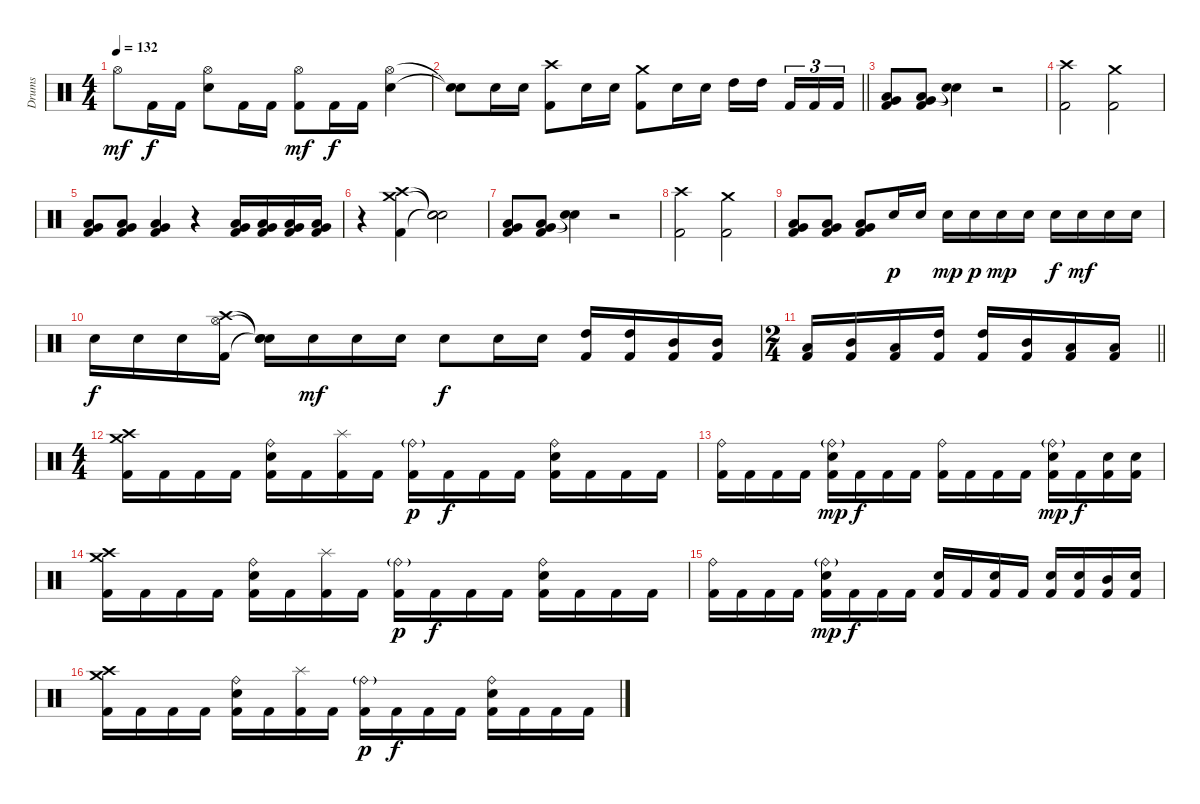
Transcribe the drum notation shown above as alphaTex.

\track ("Drums" "Drums") {instrument percussion}
\staff {score}
\articulation defaults
\ts (4 4)
\tempo 132
\clef neutral
\ks c "Hi-Hat (open)".8{dy mf} "Kick (hit) 2".16{dy f} "Kick (hit) 2".16
("Hi-Hat (open)" "Electric Snare (hit)").8 "Kick (hit) 2".16 "Kick (hit) 2".16 ("Hi-Hat (open)" "Kick (hit) 2").8{dy mf} "Kick (hit) 2".16{dy f} "Kick (hit) 2".16 ("Hi-Hat (open)" "Electric Snare (hit)").4 |
\barLineRight lightlight
("Snare (hit)"{t} "Snare (hit)"{t}).8 "Electric Snare (hit)".16 "Electric Snare (hit)".16 ("Crash high (hit)" "Kick (hit) 2").8 "Electric Snare (hit)".16 "Electric Snare (hit)".16 ("Crash medium (hit)" "Kick (hit) 2").8 "Electric Snare (hit)".16 "Electric Snare (hit)".16 "High Tom (hit)".16 "High Tom (hit)".16{beam splitsecondary} "Kick (hit) 2".16{tu (3 2)} "Kick (hit) 2".16{tu (3 2)} "Kick (hit) 2".16{tu (3 2)} |
("Low Tom (hit)" "Very Low Tom (hit)" "Kick (hit) 2").8 ("Low Tom (hit)" "Very Low Tom (hit)" "Kick (hit) 2").8 ("Snare (hit)"{t} "Snare (hit)"{t}).4 r.2 |
("Crash high (hit)" "Kick (hit) 2").2 ("Crash medium (hit)" "Kick (hit) 2").2 |
("Low Tom (hit)" "Very Low Tom (hit)" "Kick (hit) 2").8 ("Low Tom (hit)" "Very Low Tom (hit)" "Kick (hit) 2").8 ("Low Tom (hit)" "Very Low Tom (hit)" "Kick (hit) 2").4 r.4 ("Low Tom (hit)" "Very Low Tom (hit)" "Kick (hit) 2").16 ("Low Tom (hit)" "Very Low Tom (hit)" "Kick (hit) 2").16 ("Low Tom (hit)" "Very Low Tom (hit)" "Kick (hit) 2").16 ("Low Tom (hit)" "Very Low Tom (hit)" "Kick (hit) 2").16 |
r.4 ("Crash high (hit)" "Crash medium (hit)" "Kick (hit) 2").4 ("Snare (hit)"{t} "Snare (hit)"{t} "Snare (hit)"{t}).2 |
("Low Tom (hit)" "Very Low Tom (hit)" "Kick (hit) 2").8 ("Low Tom (hit)" "Very Low Tom (hit)" "Kick (hit) 2").8 ("Snare (hit)"{t} "Snare (hit)"{t}).4 r.2 |
("Crash high (hit)" "Kick (hit) 2").2 ("Crash medium (hit)" "Kick (hit) 2").2 |
("Low Tom (hit)" "Very Low Tom (hit)" "Kick (hit) 2").8 ("Low Tom (hit)" "Very Low Tom (hit)" "Kick (hit) 2").8 ("Low Tom (hit)" "Very Low Tom (hit)" "Kick (hit) 2").8 "Electric Snare (hit)".16{dy p} "Electric Snare (hit)".16 "Electric Snare (hit)".16{dy mp} "Electric Snare (hit)".16{dy p} "Electric Snare (hit)".16{dy mp} "Electric Snare (hit)".16 "Electric Snare (hit)".16{dy f} "Electric Snare (hit)".16{dy mf} "Electric Snare (hit)".16 "Electric Snare (hit)".16 |
"Electric Snare (hit)".16{dy f} "Electric Snare (hit)".16 "Electric Snare (hit)".16 ("Crash high (hit)" "Hi-Hat (open)" "Kick (hit) 2").16 ("Snare (hit)"{t} "Snare (hit)"{t} "Snare (hit)"{t}).16 "Electric Snare (hit)".16{dy mf} "Electric Snare (hit)".16 "Electric Snare (hit)".16 "Electric Snare (hit)".8{dy f} "Electric Snare (hit)".16 "Electric Snare (hit)".16 ("High Tom (hit)" "Kick (hit) 2").16 ("High Tom (hit)" "Kick (hit) 2").16 ("Mid Tom (hit)" "Kick (hit) 2").16 ("Mid Tom (hit)" "Kick (hit) 2").16 |
\ts (2 4)
\barLineRight lightlight
("Low Tom (hit)" "Kick (hit) 2").16 ("Mid Tom (hit)" "Kick (hit) 2").16 ("Low Tom (hit)" "Kick (hit) 2").16 ("High Tom (hit)" "Kick (hit) 2").16 ("High Tom (hit)" "Kick (hit) 2").16 ("Mid Tom (hit)" "Kick (hit) 2").16 ("Low Tom (hit)" "Kick (hit) 2").16 ("Low Tom (hit)" "Kick (hit) 2").16 |
\ts (4 4)
("Crash high (hit)" "Crash medium (hit)" "Kick (hit) 2").16 "Kick (hit) 2".16 "Kick (hit) 2".16 "Kick (hit) 2".16 ("Ride (bell)" "Electric Snare (hit)" "Kick (hit) 2").16 "Kick (hit) 2".16 ("Splash (hit)" "Kick (hit) 2").16 "Kick (hit) 2".16 ("Ride (bell)"{g} "Kick (hit) 2").16{dy p} "Kick (hit) 2".16{dy f} "Kick (hit) 2".16 "Kick (hit) 2".16 ("Ride (bell)" "Electric Snare (hit)" "Kick (hit) 2").16 "Kick (hit) 2".16 "Kick (hit) 2".16 "Kick (hit) 2".16 |
("Ride (bell)" "Kick (hit) 2").16 "Kick (hit) 2".16 "Kick (hit) 2".16 "Kick (hit) 2".16 ("Ride (bell)"{g} "Electric Snare (hit)" "Kick (hit) 2").16{dy mp} "Kick (hit) 2".16{dy f} "Kick (hit) 2".16 "Kick (hit) 2".16 ("Ride (bell)" "Kick (hit) 2").16 "Kick (hit) 2".16 "Kick (hit) 2".16 "Kick (hit) 2".16 ("Ride (bell)"{g} "Electric Snare (hit)" "Kick (hit) 2").16{dy mp} "Kick (hit) 2".16{dy f} ("Electric Snare (hit)" "Kick (hit) 2").16 ("Electric Snare (hit)" "Kick (hit) 2").16 |
("Crash high (hit)" "Crash medium (hit)" "Kick (hit) 2").16 "Kick (hit) 2".16 "Kick (hit) 2".16 "Kick (hit) 2".16 ("Ride (bell)" "Electric Snare (hit)" "Kick (hit) 2").16 "Kick (hit) 2".16 ("Splash (hit)" "Kick (hit) 2").16 "Kick (hit) 2".16 ("Ride (bell)"{g} "Kick (hit) 2").16{dy p} "Kick (hit) 2".16{dy f} "Kick (hit) 2".16 "Kick (hit) 2".16 ("Ride (bell)" "Electric Snare (hit)" "Kick (hit) 2").16 "Kick (hit) 2".16 "Kick (hit) 2".16 "Kick (hit) 2".16 |
("Ride (bell)" "Kick (hit) 2").16 "Kick (hit) 2".16 "Kick (hit) 2".16 "Kick (hit) 2".16 ("Ride (bell)"{g} "Electric Snare (hit)" "Kick (hit) 2").16{dy mp} "Kick (hit) 2".16{dy f} "Kick (hit) 2".16 "Kick (hit) 2".16 ("Electric Snare (hit)" "Kick (hit) 2").16 "Kick (hit) 2".16 ("Electric Snare (hit)" "Kick (hit) 2").16 "Kick (hit) 2".16 ("Electric Snare (hit)" "Kick (hit) 2").16 ("Electric Snare (hit)" "Kick (hit) 2").16 ("Mid Tom (hit)" "Kick (hit) 2").16 ("Electric Snare (hit)" "Kick (hit) 2").16 |
("Crash high (hit)" "Crash medium (hit)" "Kick (hit) 2").16 "Kick (hit) 2".16 "Kick (hit) 2".16 "Kick (hit) 2".16 ("Ride (bell)" "Electric Snare (hit)" "Kick (hit) 2").16 "Kick (hit) 2".16 ("Splash (hit)" "Kick (hit) 2").16 "Kick (hit) 2".16 ("Ride (bell)"{g} "Kick (hit) 2").16{dy p} "Kick (hit) 2".16{dy f} "Kick (hit) 2".16 "Kick (hit) 2".16 ("Ride (bell)" "Electric Snare (hit)" "Kick (hit) 2").16 "Kick (hit) 2".16 "Kick (hit) 2".16 "Kick (hit) 2".16
